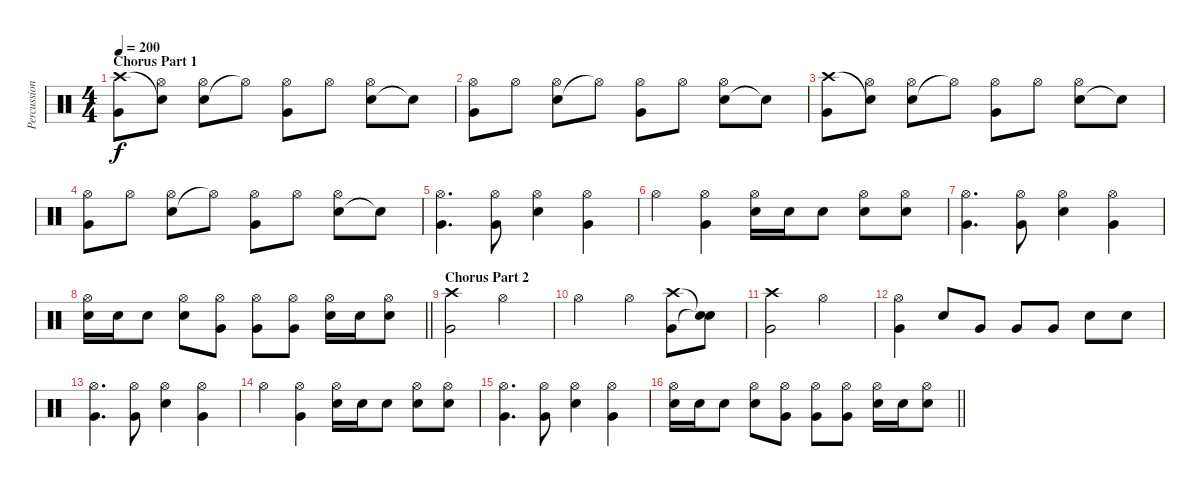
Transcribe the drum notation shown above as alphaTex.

\track ("Percussion" "Percussion") {instrument percussion}
\staff {score}
\articulation defaults
\ts (4 4)
\section ("" "Chorus Part 1")
\tempo 200
\clef neutral
\ks c
("Very Low Tom (hit)" "Crash high (hit)").8{dy f} ("Hi-Hat (open)" "Snare (hit)"{t}).8 ("Snare (hit) 2" "Hi-Hat (open)").8 "Hi-Hat (open)"{t}.8 ("Very Low Tom (hit)" "Hi-Hat (open)").8 "Hi-Hat (open)".8 ("Snare (hit) 2" "Hi-Hat (open)").8 "Snare (hit)"{t}.8 |
("Very Low Tom (hit)" "Hi-Hat (open)").8 "Hi-Hat (open)".8 ("Snare (hit) 2" "Hi-Hat (open)").8 "Hi-Hat (open)"{t}.8 ("Very Low Tom (hit)" "Hi-Hat (open)").8 "Hi-Hat (open)".8 ("Snare (hit) 2" "Hi-Hat (open)").8 "Snare (hit)"{t}.8 |
("Very Low Tom (hit)" "Crash high (hit)").8 ("Hi-Hat (open)" "Snare (hit)"{t}).8 ("Snare (hit) 2" "Hi-Hat (open)").8 "Hi-Hat (open)"{t}.8 ("Very Low Tom (hit)" "Hi-Hat (open)").8 "Hi-Hat (open)".8 ("Snare (hit) 2" "Hi-Hat (open)").8 "Snare (hit)"{t}.8 |
("Very Low Tom (hit)" "Hi-Hat (open)").8 "Hi-Hat (open)".8 ("Snare (hit) 2" "Hi-Hat (open)").8 "Hi-Hat (open)"{t}.8 ("Very Low Tom (hit)" "Hi-Hat (open)").8 "Hi-Hat (open)".8 ("Snare (hit) 2" "Hi-Hat (open)").8 "Snare (hit)"{t}.8 |
("Very Low Tom (hit)" "Hi-Hat (open)").4{d} ("Very Low Tom (hit)" "Hi-Hat (open)").8 ("Snare (hit) 2" "Hi-Hat (open)").4 ("Very Low Tom (hit)" "Hi-Hat (open)").4 |
"Hi-Hat (open)".4 ("Very Low Tom (hit)" "Hi-Hat (open)").4 ("Electric Snare (hit)" "Hi-Hat (open)").16 "Electric Snare (hit)".16 "Electric Snare (hit)".8 ("Snare (hit) 2" "Hi-Hat (open)").8 ("Snare (hit) 2" "Hi-Hat (open)").8 |
("Very Low Tom (hit)" "Hi-Hat (open)").4{d} ("Very Low Tom (hit)" "Hi-Hat (open)").8 ("Snare (hit) 2" "Hi-Hat (open)").4 ("Very Low Tom (hit)" "Hi-Hat (open)").4 |
\barLineRight lightlight
("Electric Snare (hit)" "Hi-Hat (open)").16 "Electric Snare (hit)".16 "Electric Snare (hit)".8 ("Snare (hit) 2" "Hi-Hat (open)").8 ("Very Low Tom (hit)" "Hi-Hat (open)").8 ("Very Low Tom (hit)" "Hi-Hat (open)").8 ("Very Low Tom (hit)" "Hi-Hat (open)").8 ("Snare (hit) 2" "Hi-Hat (open)").16 "Snare (hit) 2".16 ("Snare (hit) 2" "Hi-Hat (open)").8 |
\section ("" "Chorus Part 2")
("Very Low Tom (hit)" "Crash high (hit)").2 "Hi-Hat (open)".2 |
"Hi-Hat (open)".2 "Hi-Hat (open)".4 ("Very Low Tom (hit)" "Crash high (hit)").8 ("Snare (hit)"{t} "Snare (hit)"{t}).8 |
("Very Low Tom (hit)" "Crash high (hit)").2 "Hi-Hat (open)".2 |
("Very Low Tom (hit)" "Hi-Hat (open)").4 "Electric Snare (hit)".8 "Very Low Tom (hit)".8 "Very Low Tom (hit)".8 "Very Low Tom (hit)".8 "Electric Snare (hit)".8 "Electric Snare (hit)".8 |
("Very Low Tom (hit)" "Hi-Hat (open)").4{d} ("Very Low Tom (hit)" "Hi-Hat (open)").8 ("Snare (hit) 2" "Hi-Hat (open)").4 ("Very Low Tom (hit)" "Hi-Hat (open)").4 |
"Hi-Hat (open)".4 ("Very Low Tom (hit)" "Hi-Hat (open)").4 ("Electric Snare (hit)" "Hi-Hat (open)").16 "Electric Snare (hit)".16 "Electric Snare (hit)".8 ("Snare (hit) 2" "Hi-Hat (open)").8 ("Snare (hit) 2" "Hi-Hat (open)").8 |
("Very Low Tom (hit)" "Hi-Hat (open)").4{d} ("Very Low Tom (hit)" "Hi-Hat (open)").8 ("Snare (hit) 2" "Hi-Hat (open)").4 ("Very Low Tom (hit)" "Hi-Hat (open)").4 |
\barLineRight lightlight
("Electric Snare (hit)" "Hi-Hat (open)").16 "Electric Snare (hit)".16 "Electric Snare (hit)".8 ("Snare (hit) 2" "Hi-Hat (open)").8 ("Very Low Tom (hit)" "Hi-Hat (open)").8 ("Very Low Tom (hit)" "Hi-Hat (open)").8 ("Very Low Tom (hit)" "Hi-Hat (open)").8 ("Snare (hit) 2" "Hi-Hat (open)").16 "Snare (hit) 2".16 ("Snare (hit) 2" "Hi-Hat (open)").8
